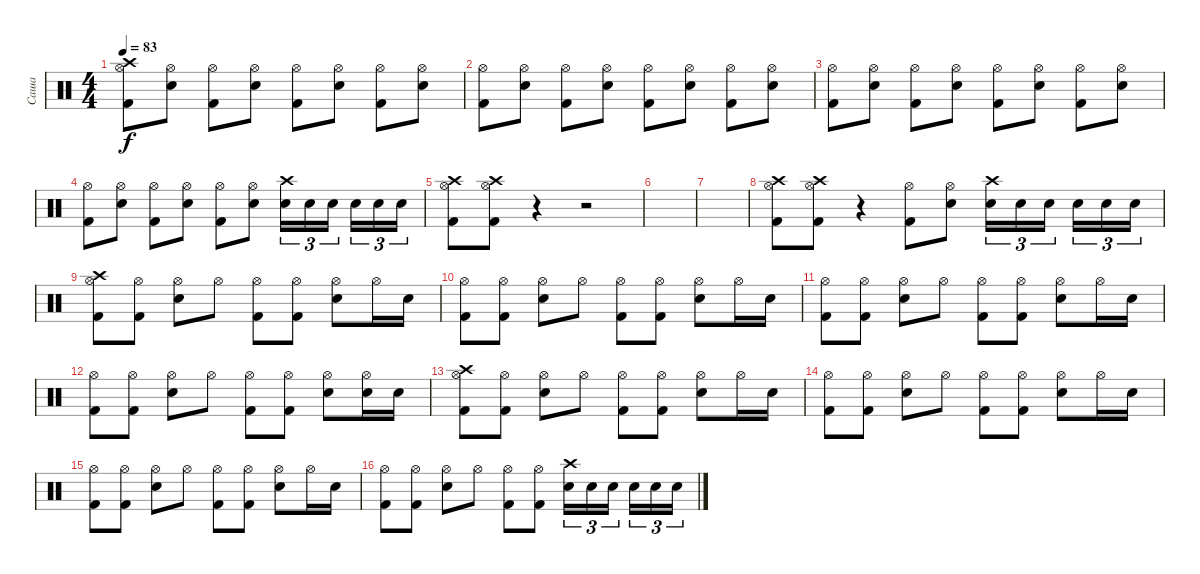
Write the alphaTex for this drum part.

\track ("Саша" "Саша") {instrument percussion}
\staff {score}
\articulation defaults
\ts (4 4)
\tempo 83
\clef neutral
\ks c
("Kick (hit) 2" "Crash high (hit)" "Hi-Hat (open)").8{dy f} ("Snare (hit) 2" "Hi-Hat (open)").8 ("Kick (hit) 2" "Hi-Hat (open)").8 ("Snare (hit) 2" "Hi-Hat (open)").8 ("Kick (hit) 2" "Hi-Hat (open)").8 ("Snare (hit) 2" "Hi-Hat (open)").8 ("Kick (hit) 2" "Hi-Hat (open)").8 ("Snare (hit) 2" "Hi-Hat (open)").8 |
("Kick (hit) 2" "Hi-Hat (open)").8 ("Snare (hit) 2" "Hi-Hat (open)").8 ("Kick (hit) 2" "Hi-Hat (open)").8 ("Snare (hit) 2" "Hi-Hat (open)").8 ("Kick (hit) 2" "Hi-Hat (open)").8 ("Snare (hit) 2" "Hi-Hat (open)").8 ("Kick (hit) 2" "Hi-Hat (open)").8 ("Snare (hit) 2" "Hi-Hat (open)").8 |
("Kick (hit) 2" "Hi-Hat (open)").8 ("Snare (hit) 2" "Hi-Hat (open)").8 ("Kick (hit) 2" "Hi-Hat (open)").8 ("Snare (hit) 2" "Hi-Hat (open)").8 ("Kick (hit) 2" "Hi-Hat (open)").8 ("Snare (hit) 2" "Hi-Hat (open)").8 ("Kick (hit) 2" "Hi-Hat (open)").8 ("Snare (hit) 2" "Hi-Hat (open)").8 |
("Kick (hit) 2" "Hi-Hat (open)").8 ("Snare (hit) 2" "Hi-Hat (open)").8 ("Kick (hit) 2" "Hi-Hat (open)").8 ("Snare (hit) 2" "Hi-Hat (open)").8 ("Kick (hit) 2" "Hi-Hat (open)").8 ("Snare (hit) 2" "Hi-Hat (open)").8 ("Snare (hit) 2" "Crash high (hit)").16{tu (3 2)} "Snare (hit) 2".16{tu (3 2)} "Snare (hit) 2".16{tu (3 2) beam splitsecondary} "Snare (hit) 2".16{tu (3 2)} "Snare (hit) 2".16{tu (3 2)} "Snare (hit) 2".16{tu (3 2)} |
("Kick (hit) 2" "Hi-Hat (open)" "Crash high (hit)").8 ("Kick (hit) 2" "Hi-Hat (open)" "Crash high (hit)").8 r.4 r.2 |
|
|
("Kick (hit) 2" "Hi-Hat (open)" "Crash high (hit)").8 ("Kick (hit) 2" "Hi-Hat (open)" "Crash high (hit)").8 r.4 ("Hi-Hat (open)" "Kick (hit) 2").8 ("Snare (hit) 2" "Hi-Hat (open)").8 ("Snare (hit) 2" "Crash high (hit)").16{tu (3 2)} "Snare (hit) 2".16{tu (3 2)} "Snare (hit) 2".16{tu (3 2) beam splitsecondary} "Snare (hit) 2".16{tu (3 2)} "Snare (hit) 2".16{tu (3 2)} "Snare (hit) 2".16{tu (3 2)} |
("Kick (hit) 2" "Crash high (hit)" "Hi-Hat (open)").8 ("Kick (hit) 2" "Hi-Hat (open)").8 ("Snare (hit) 2" "Hi-Hat (open)").8 "Hi-Hat (open)".8 ("Kick (hit) 2" "Hi-Hat (open)").8 ("Kick (hit) 2" "Hi-Hat (open)").8 ("Snare (hit) 2" "Hi-Hat (open)").8 "Hi-Hat (open)".16 "Snare (hit) 2".16 |
("Kick (hit) 2" "Hi-Hat (open)").8 ("Kick (hit) 2" "Hi-Hat (open)").8 ("Snare (hit) 2" "Hi-Hat (open)").8 "Hi-Hat (open)".8 ("Kick (hit) 2" "Hi-Hat (open)").8 ("Kick (hit) 2" "Hi-Hat (open)").8 ("Snare (hit) 2" "Hi-Hat (open)").8 "Hi-Hat (open)".16 "Snare (hit) 2".16 |
("Kick (hit) 2" "Hi-Hat (open)").8 ("Kick (hit) 2" "Hi-Hat (open)").8 ("Snare (hit) 2" "Hi-Hat (open)").8 "Hi-Hat (open)".8 ("Kick (hit) 2" "Hi-Hat (open)").8 ("Kick (hit) 2" "Hi-Hat (open)").8 ("Snare (hit) 2" "Hi-Hat (open)").8 "Hi-Hat (open)".16 "Snare (hit) 2".16 |
("Kick (hit) 2" "Hi-Hat (open)").8 ("Kick (hit) 2" "Hi-Hat (open)").8 ("Snare (hit) 2" "Hi-Hat (open)").8 "Hi-Hat (open)".8 ("Kick (hit) 2" "Hi-Hat (open)").8 ("Kick (hit) 2" "Hi-Hat (open)").8 ("Snare (hit) 2" "Hi-Hat (open)").8 ("Hi-Hat (open)" "Snare (hit) 2").16 "Snare (hit) 2".16 |
("Kick (hit) 2" "Crash high (hit)" "Hi-Hat (open)").8 ("Kick (hit) 2" "Hi-Hat (open)").8 ("Snare (hit) 2" "Hi-Hat (open)").8 "Hi-Hat (open)".8 ("Kick (hit) 2" "Hi-Hat (open)").8 ("Kick (hit) 2" "Hi-Hat (open)").8 ("Snare (hit) 2" "Hi-Hat (open)").8 "Hi-Hat (open)".16 "Snare (hit) 2".16 |
("Kick (hit) 2" "Hi-Hat (open)").8 ("Kick (hit) 2" "Hi-Hat (open)").8 ("Snare (hit) 2" "Hi-Hat (open)").8 "Hi-Hat (open)".8 ("Kick (hit) 2" "Hi-Hat (open)").8 ("Kick (hit) 2" "Hi-Hat (open)").8 ("Snare (hit) 2" "Hi-Hat (open)").8 "Hi-Hat (open)".16 "Snare (hit) 2".16 |
("Kick (hit) 2" "Hi-Hat (open)").8 ("Kick (hit) 2" "Hi-Hat (open)").8 ("Snare (hit) 2" "Hi-Hat (open)").8 "Hi-Hat (open)".8 ("Kick (hit) 2" "Hi-Hat (open)").8 ("Kick (hit) 2" "Hi-Hat (open)").8 ("Snare (hit) 2" "Hi-Hat (open)").8 "Hi-Hat (open)".16 "Snare (hit) 2".16 |
("Kick (hit) 2" "Hi-Hat (open)").8 ("Kick (hit) 2" "Hi-Hat (open)").8 ("Snare (hit) 2" "Hi-Hat (open)").8 "Hi-Hat (open)".8 ("Kick (hit) 2" "Hi-Hat (open)").8 ("Kick (hit) 2" "Hi-Hat (open)").8 ("Snare (hit) 2" "Crash high (hit)").16{tu (3 2)} "Snare (hit) 2".16{tu (3 2)} "Snare (hit) 2".16{tu (3 2) beam splitsecondary} "Snare (hit) 2".16{tu (3 2)} "Snare (hit) 2".16{tu (3 2)} "Snare (hit) 2".16{tu (3 2)}
